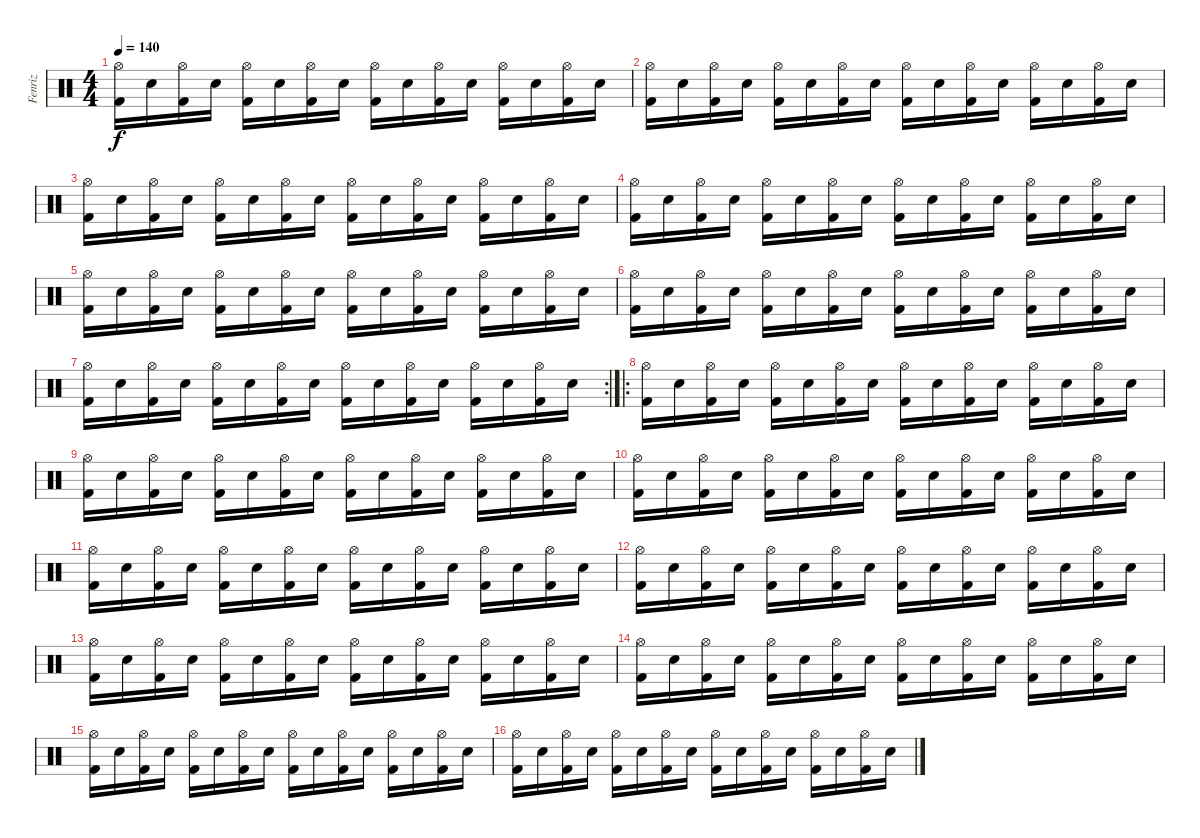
\track ("Fenriz" "Fenriz") {instrument percussion}
\staff {score}
\articulation defaults
\ts (4 4)
\tempo 140
\clef neutral
\ks c
("Hi-Hat (open)" "Kick (hit) 2").16{dy f} "Snare (hit) 2".16 ("Hi-Hat (open)" "Kick (hit) 2").16 "Snare (hit) 2".16 ("Hi-Hat (open)" "Kick (hit) 2").16 "Snare (hit) 2".16 ("Hi-Hat (open)" "Kick (hit) 2").16 "Snare (hit) 2".16 ("Hi-Hat (open)" "Kick (hit) 2").16 "Snare (hit) 2".16 ("Hi-Hat (open)" "Kick (hit) 2").16 "Snare (hit) 2".16 ("Hi-Hat (open)" "Kick (hit) 2").16 "Snare (hit) 2".16 ("Hi-Hat (open)" "Kick (hit) 2").16 "Snare (hit) 2".16 |
("Hi-Hat (open)" "Kick (hit) 2").16 "Snare (hit) 2".16 ("Hi-Hat (open)" "Kick (hit) 2").16 "Snare (hit) 2".16 ("Hi-Hat (open)" "Kick (hit) 2").16 "Snare (hit) 2".16 ("Hi-Hat (open)" "Kick (hit) 2").16 "Snare (hit) 2".16 ("Hi-Hat (open)" "Kick (hit) 2").16 "Snare (hit) 2".16 ("Hi-Hat (open)" "Kick (hit) 2").16 "Snare (hit) 2".16 ("Hi-Hat (open)" "Kick (hit) 2").16 "Snare (hit) 2".16 ("Hi-Hat (open)" "Kick (hit) 2").16 "Snare (hit) 2".16 |
("Hi-Hat (open)" "Kick (hit) 2").16 "Snare (hit) 2".16 ("Hi-Hat (open)" "Kick (hit) 2").16 "Snare (hit) 2".16 ("Hi-Hat (open)" "Kick (hit) 2").16 "Snare (hit) 2".16 ("Hi-Hat (open)" "Kick (hit) 2").16 "Snare (hit) 2".16 ("Hi-Hat (open)" "Kick (hit) 2").16 "Snare (hit) 2".16 ("Hi-Hat (open)" "Kick (hit) 2").16 "Snare (hit) 2".16 ("Hi-Hat (open)" "Kick (hit) 2").16 "Snare (hit) 2".16 ("Hi-Hat (open)" "Kick (hit) 2").16 "Snare (hit) 2".16 |
("Hi-Hat (open)" "Kick (hit) 2").16 "Snare (hit) 2".16 ("Hi-Hat (open)" "Kick (hit) 2").16 "Snare (hit) 2".16 ("Hi-Hat (open)" "Kick (hit) 2").16 "Snare (hit) 2".16 ("Hi-Hat (open)" "Kick (hit) 2").16 "Snare (hit) 2".16 ("Hi-Hat (open)" "Kick (hit) 2").16 "Snare (hit) 2".16 ("Hi-Hat (open)" "Kick (hit) 2").16 "Snare (hit) 2".16 ("Hi-Hat (open)" "Kick (hit) 2").16 "Snare (hit) 2".16 ("Hi-Hat (open)" "Kick (hit) 2").16 "Snare (hit) 2".16 |
("Hi-Hat (open)" "Kick (hit) 2").16 "Snare (hit) 2".16 ("Hi-Hat (open)" "Kick (hit) 2").16 "Snare (hit) 2".16 ("Hi-Hat (open)" "Kick (hit) 2").16 "Snare (hit) 2".16 ("Hi-Hat (open)" "Kick (hit) 2").16 "Snare (hit) 2".16 ("Hi-Hat (open)" "Kick (hit) 2").16 "Snare (hit) 2".16 ("Hi-Hat (open)" "Kick (hit) 2").16 "Snare (hit) 2".16 ("Hi-Hat (open)" "Kick (hit) 2").16 "Snare (hit) 2".16 ("Hi-Hat (open)" "Kick (hit) 2").16 "Snare (hit) 2".16 |
("Hi-Hat (open)" "Kick (hit) 2").16 "Snare (hit) 2".16 ("Hi-Hat (open)" "Kick (hit) 2").16 "Snare (hit) 2".16 ("Hi-Hat (open)" "Kick (hit) 2").16 "Snare (hit) 2".16 ("Hi-Hat (open)" "Kick (hit) 2").16 "Snare (hit) 2".16 ("Hi-Hat (open)" "Kick (hit) 2").16 "Snare (hit) 2".16 ("Hi-Hat (open)" "Kick (hit) 2").16 "Snare (hit) 2".16 ("Hi-Hat (open)" "Kick (hit) 2").16 "Snare (hit) 2".16 ("Hi-Hat (open)" "Kick (hit) 2").16 "Snare (hit) 2".16 |
\rc 2
("Hi-Hat (open)" "Kick (hit) 2").16 "Snare (hit) 2".16 ("Hi-Hat (open)" "Kick (hit) 2").16 "Snare (hit) 2".16 ("Hi-Hat (open)" "Kick (hit) 2").16 "Snare (hit) 2".16 ("Hi-Hat (open)" "Kick (hit) 2").16 "Snare (hit) 2".16 ("Hi-Hat (open)" "Kick (hit) 2").16 "Snare (hit) 2".16 ("Hi-Hat (open)" "Kick (hit) 2").16 "Snare (hit) 2".16 ("Hi-Hat (open)" "Kick (hit) 2").16 "Snare (hit) 2".16 ("Hi-Hat (open)" "Kick (hit) 2").16 "Snare (hit) 2".16 |
\ro
("Hi-Hat (open)" "Kick (hit) 2").16 "Snare (hit) 2".16 ("Hi-Hat (open)" "Kick (hit) 2").16 "Snare (hit) 2".16 ("Hi-Hat (open)" "Kick (hit) 2").16 "Snare (hit) 2".16 ("Hi-Hat (open)" "Kick (hit) 2").16 "Snare (hit) 2".16 ("Hi-Hat (open)" "Kick (hit) 2").16 "Snare (hit) 2".16 ("Hi-Hat (open)" "Kick (hit) 2").16 "Snare (hit) 2".16 ("Hi-Hat (open)" "Kick (hit) 2").16 "Snare (hit) 2".16 ("Hi-Hat (open)" "Kick (hit) 2").16 "Snare (hit) 2".16 |
("Hi-Hat (open)" "Kick (hit) 2").16 "Snare (hit) 2".16 ("Hi-Hat (open)" "Kick (hit) 2").16 "Snare (hit) 2".16 ("Hi-Hat (open)" "Kick (hit) 2").16 "Snare (hit) 2".16 ("Hi-Hat (open)" "Kick (hit) 2").16 "Snare (hit) 2".16 ("Hi-Hat (open)" "Kick (hit) 2").16 "Snare (hit) 2".16 ("Hi-Hat (open)" "Kick (hit) 2").16 "Snare (hit) 2".16 ("Hi-Hat (open)" "Kick (hit) 2").16 "Snare (hit) 2".16 ("Hi-Hat (open)" "Kick (hit) 2").16 "Snare (hit) 2".16 |
("Hi-Hat (open)" "Kick (hit) 2").16 "Snare (hit) 2".16 ("Hi-Hat (open)" "Kick (hit) 2").16 "Snare (hit) 2".16 ("Hi-Hat (open)" "Kick (hit) 2").16 "Snare (hit) 2".16 ("Hi-Hat (open)" "Kick (hit) 2").16 "Snare (hit) 2".16 ("Hi-Hat (open)" "Kick (hit) 2").16 "Snare (hit) 2".16 ("Hi-Hat (open)" "Kick (hit) 2").16 "Snare (hit) 2".16 ("Hi-Hat (open)" "Kick (hit) 2").16 "Snare (hit) 2".16 ("Hi-Hat (open)" "Kick (hit) 2").16 "Snare (hit) 2".16 |
("Hi-Hat (open)" "Kick (hit) 2").16 "Snare (hit) 2".16 ("Hi-Hat (open)" "Kick (hit) 2").16 "Snare (hit) 2".16 ("Hi-Hat (open)" "Kick (hit) 2").16 "Snare (hit) 2".16 ("Hi-Hat (open)" "Kick (hit) 2").16 "Snare (hit) 2".16 ("Hi-Hat (open)" "Kick (hit) 2").16 "Snare (hit) 2".16 ("Hi-Hat (open)" "Kick (hit) 2").16 "Snare (hit) 2".16 ("Hi-Hat (open)" "Kick (hit) 2").16 "Snare (hit) 2".16 ("Hi-Hat (open)" "Kick (hit) 2").16 "Snare (hit) 2".16 |
("Hi-Hat (open)" "Kick (hit) 2").16 "Snare (hit) 2".16 ("Hi-Hat (open)" "Kick (hit) 2").16 "Snare (hit) 2".16 ("Hi-Hat (open)" "Kick (hit) 2").16 "Snare (hit) 2".16 ("Hi-Hat (open)" "Kick (hit) 2").16 "Snare (hit) 2".16 ("Hi-Hat (open)" "Kick (hit) 2").16 "Snare (hit) 2".16 ("Hi-Hat (open)" "Kick (hit) 2").16 "Snare (hit) 2".16 ("Hi-Hat (open)" "Kick (hit) 2").16 "Snare (hit) 2".16 ("Hi-Hat (open)" "Kick (hit) 2").16 "Snare (hit) 2".16 |
("Hi-Hat (open)" "Kick (hit) 2").16 "Snare (hit) 2".16 ("Hi-Hat (open)" "Kick (hit) 2").16 "Snare (hit) 2".16 ("Hi-Hat (open)" "Kick (hit) 2").16 "Snare (hit) 2".16 ("Hi-Hat (open)" "Kick (hit) 2").16 "Snare (hit) 2".16 ("Hi-Hat (open)" "Kick (hit) 2").16 "Snare (hit) 2".16 ("Hi-Hat (open)" "Kick (hit) 2").16 "Snare (hit) 2".16 ("Hi-Hat (open)" "Kick (hit) 2").16 "Snare (hit) 2".16 ("Hi-Hat (open)" "Kick (hit) 2").16 "Snare (hit) 2".16 |
("Hi-Hat (open)" "Kick (hit) 2").16 "Snare (hit) 2".16 ("Hi-Hat (open)" "Kick (hit) 2").16 "Snare (hit) 2".16 ("Hi-Hat (open)" "Kick (hit) 2").16 "Snare (hit) 2".16 ("Hi-Hat (open)" "Kick (hit) 2").16 "Snare (hit) 2".16 ("Hi-Hat (open)" "Kick (hit) 2").16 "Snare (hit) 2".16 ("Hi-Hat (open)" "Kick (hit) 2").16 "Snare (hit) 2".16 ("Hi-Hat (open)" "Kick (hit) 2").16 "Snare (hit) 2".16 ("Hi-Hat (open)" "Kick (hit) 2").16 "Snare (hit) 2".16 |
("Hi-Hat (open)" "Kick (hit) 2").16 "Snare (hit) 2".16 ("Hi-Hat (open)" "Kick (hit) 2").16 "Snare (hit) 2".16 ("Hi-Hat (open)" "Kick (hit) 2").16 "Snare (hit) 2".16 ("Hi-Hat (open)" "Kick (hit) 2").16 "Snare (hit) 2".16 ("Hi-Hat (open)" "Kick (hit) 2").16 "Snare (hit) 2".16 ("Hi-Hat (open)" "Kick (hit) 2").16 "Snare (hit) 2".16 ("Hi-Hat (open)" "Kick (hit) 2").16 "Snare (hit) 2".16 ("Hi-Hat (open)" "Kick (hit) 2").16 "Snare (hit) 2".16 |
("Hi-Hat (open)" "Kick (hit) 2").16 "Snare (hit) 2".16 ("Hi-Hat (open)" "Kick (hit) 2").16 "Snare (hit) 2".16 ("Hi-Hat (open)" "Kick (hit) 2").16 "Snare (hit) 2".16 ("Hi-Hat (open)" "Kick (hit) 2").16 "Snare (hit) 2".16 ("Hi-Hat (open)" "Kick (hit) 2").16 "Snare (hit) 2".16 ("Hi-Hat (open)" "Kick (hit) 2").16 "Snare (hit) 2".16 ("Hi-Hat (open)" "Kick (hit) 2").16 "Snare (hit) 2".16 ("Hi-Hat (open)" "Kick (hit) 2").16 "Snare (hit) 2".16
